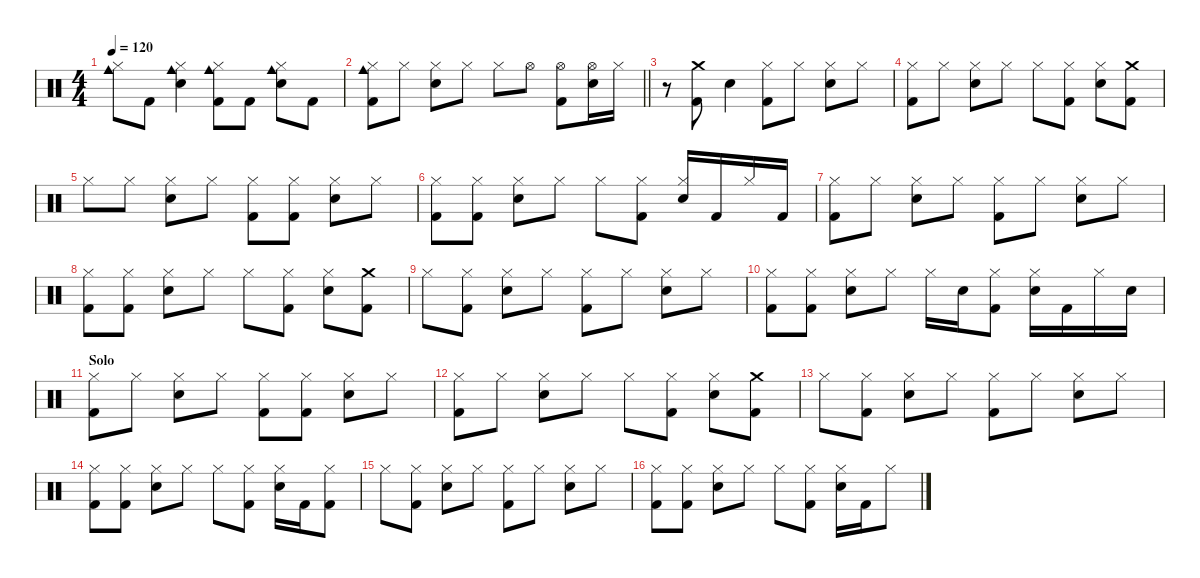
\defaultSystemsLayout 4
\hideDynamics
\bracketExtendMode nobrackets
\singleTrackTrackNamePolicy hidden
\multiTrackTrackNamePolicy hidden
\otherSystemsTrackNameOrientation horizontal
\track ("Percussions" "drm.") {instrument percussion}
\staff {score}
\articulation defaults
\ts (4 4)
\tempo 120
\clef neutral
\ks c
("Cowbell medium (hit)" "Hi-Hat (closed)").8{dy f beam Down} "Kick (hit) 2".8{beam Down} ("Cowbell medium (hit)" "Hi-Hat (closed)" "Snare (hit) 2").4{beam Down} ("Cowbell medium (hit)" "Hi-Hat (closed)" "Kick (hit) 2").8{beam Down} "Kick (hit) 2".8{beam Down} ("Cowbell medium (hit)" "Hi-Hat (closed)" "Snare (hit) 2").8{beam Down} "Kick (hit) 2".8{beam Down} |
\barLineRight lightlight
("Cowbell medium (hit)" "Hi-Hat (closed)" "Kick (hit) 2").8{beam Down} "Hi-Hat (closed)".8{beam Down} ("Hi-Hat (closed)" "Snare (hit) 2").8{beam Down} "Hi-Hat (closed)".8{beam Down} "Hi-Hat (closed)".8{beam Down} "Hi-Hat (open)".8{beam Down} ("Hi-Hat (open)" "Kick (hit) 2").8{beam Down} ("Hi-Hat (open)" "Snare (hit) 2").16{beam Down} "Hi-Hat (closed)".16{beam Down} |
r.8{beam Down} ("Crash medium (hit)" "Kick (hit) 2").8{beam Down} "Snare (hit) 2".4{beam Down} ("Hi-Hat (closed)" "Kick (hit) 2").8{beam Down} "Hi-Hat (closed)".8{beam Down} ("Hi-Hat (closed)" "Snare (hit) 2").8{beam Down} "Hi-Hat (closed)".8{beam Down} |
("Hi-Hat (closed)" "Kick (hit) 2").8{beam Down} "Hi-Hat (closed)".8{beam Down} ("Hi-Hat (closed)" "Snare (hit) 2").8{beam Down} "Hi-Hat (closed)".8{beam Down} "Hi-Hat (closed)".8{beam Down} ("Hi-Hat (closed)" "Kick (hit) 2").8{beam Down} ("Hi-Hat (closed)" "Snare (hit) 2").8{beam Down} ("Crash medium (hit)" "Kick (hit) 2").8{beam Down} |
"Hi-Hat (closed)".8{beam Down} "Hi-Hat (closed)".8{beam Down} ("Hi-Hat (closed)" "Snare (hit) 2").8{beam Down} "Hi-Hat (closed)".8{beam Down} ("Hi-Hat (closed)" "Kick (hit) 2").8{beam Down} ("Hi-Hat (closed)" "Kick (hit) 2").8{beam Down} ("Hi-Hat (closed)" "Snare (hit) 2").8{beam Down} "Hi-Hat (closed)".8{beam Down} |
("Hi-Hat (closed)" "Kick (hit) 2").8{beam Down} ("Hi-Hat (closed)" "Kick (hit) 2").8{beam Down} ("Hi-Hat (closed)" "Snare (hit) 2").8{beam Down} "Hi-Hat (closed)".8{beam Down} "Hi-Hat (closed)".8{beam Down} ("Hi-Hat (closed)" "Kick (hit) 2").8{beam Down} ("Hi-Hat (closed)" "Snare (hit) 2").16{beam Up} "Kick (hit) 2".16{beam Up} "Hi-Hat (closed)".16{beam Up} "Kick (hit) 2".16{beam Up} |
("Hi-Hat (closed)" "Kick (hit) 2").8{beam Down} "Hi-Hat (closed)".8{beam Down} ("Hi-Hat (closed)" "Snare (hit) 2").8{beam Down} "Hi-Hat (closed)".8{beam Down} ("Hi-Hat (closed)" "Kick (hit) 2").8{beam Down} "Hi-Hat (closed)".8{beam Down} ("Hi-Hat (closed)" "Snare (hit) 2").8{beam Down} "Hi-Hat (closed)".8{beam Down} |
("Hi-Hat (closed)" "Kick (hit) 2").8{beam Down} ("Hi-Hat (closed)" "Kick (hit) 2").8{beam Down} ("Hi-Hat (closed)" "Snare (hit) 2").8{beam Down} "Hi-Hat (closed)".8{beam Down} "Hi-Hat (closed)".8{beam Down} ("Hi-Hat (closed)" "Kick (hit) 2").8{beam Down} ("Hi-Hat (closed)" "Snare (hit) 2").8{beam Down} ("Crash medium (hit)" "Kick (hit) 2").8{beam Down} |
"Hi-Hat (closed)".8{beam Down} ("Hi-Hat (closed)" "Kick (hit) 2").8{beam Down} ("Hi-Hat (closed)" "Snare (hit) 2").8{beam Down} "Hi-Hat (closed)".8{beam Down} ("Hi-Hat (closed)" "Kick (hit) 2").8{beam Down} "Hi-Hat (closed)".8{beam Down} ("Hi-Hat (closed)" "Snare (hit) 2").8{beam Down} "Hi-Hat (closed)".8{beam Down} |
("Hi-Hat (closed)" "Kick (hit) 2").8{beam Down} ("Hi-Hat (closed)" "Kick (hit) 2").8{beam Down} ("Hi-Hat (closed)" "Snare (hit) 2").8{beam Down} "Hi-Hat (closed)".8{beam Down} "Hi-Hat (closed)".16{beam Down} "Snare (hit) 2".16{beam Down} ("Hi-Hat (closed)" "Kick (hit) 2").8{beam Down} ("Hi-Hat (closed)" "Snare (hit) 2").16{beam Down} "Kick (hit) 2".16{beam Down} "Hi-Hat (closed)".16{beam Down} "Snare (hit) 2".16{beam Down} |
\section ("" "Solo")
("Hi-Hat (closed)" "Kick (hit) 2").8{beam Down} "Hi-Hat (closed)".8{beam Down} ("Hi-Hat (closed)" "Snare (hit) 2").8{beam Down} "Hi-Hat (closed)".8{beam Down} ("Hi-Hat (closed)" "Kick (hit) 2").8{beam Down} ("Hi-Hat (closed)" "Kick (hit) 2").8{beam Down} ("Hi-Hat (closed)" "Snare (hit) 2").8{beam Down} "Hi-Hat (closed)".8{beam Down} |
("Hi-Hat (closed)" "Kick (hit) 2").8{beam Down} "Hi-Hat (closed)".8{beam Down} ("Hi-Hat (closed)" "Snare (hit) 2").8{beam Down} "Hi-Hat (closed)".8{beam Down} "Hi-Hat (closed)".8{beam Down} ("Hi-Hat (closed)" "Kick (hit) 2").8{beam Down} ("Hi-Hat (closed)" "Snare (hit) 2").8{beam Down} ("Crash medium (hit)" "Kick (hit) 2").8{beam Down} |
"Hi-Hat (closed)".8{beam Down} ("Hi-Hat (closed)" "Kick (hit) 2").8{beam Down} ("Hi-Hat (closed)" "Snare (hit) 2").8{beam Down} "Hi-Hat (closed)".8{beam Down} ("Hi-Hat (closed)" "Kick (hit) 2").8{beam Down} "Hi-Hat (closed)".8{beam Down} ("Hi-Hat (closed)" "Snare (hit) 2").8{beam Down} "Hi-Hat (closed)".8{beam Down} |
("Hi-Hat (closed)" "Kick (hit) 2").8{beam Down} ("Hi-Hat (closed)" "Kick (hit) 2").8{beam Down} ("Hi-Hat (closed)" "Snare (hit) 2").8{beam Down} "Hi-Hat (closed)".8{beam Down} "Hi-Hat (closed)".8{beam Down} ("Hi-Hat (closed)" "Kick (hit) 2").8{beam Down} ("Hi-Hat (closed)" "Snare (hit) 2").16{beam Down} "Kick (hit) 2".16{beam Down} ("Hi-Hat (closed)" "Kick (hit) 2").8{beam Down} |
"Hi-Hat (closed)".8{beam Down} ("Hi-Hat (closed)" "Kick (hit) 2").8{beam Down} ("Hi-Hat (closed)" "Snare (hit) 2").8{beam Down} "Hi-Hat (closed)".8{beam Down} ("Hi-Hat (closed)" "Kick (hit) 2").8{beam Down} "Hi-Hat (closed)".8{beam Down} ("Hi-Hat (closed)" "Snare (hit) 2").8{beam Down} "Hi-Hat (closed)".8{beam Down} |
("Hi-Hat (closed)" "Kick (hit) 2").8{beam Down} ("Hi-Hat (closed)" "Kick (hit) 2").8{beam Down} ("Hi-Hat (closed)" "Snare (hit) 2").8{beam Down} "Hi-Hat (closed)".8{beam Down} "Hi-Hat (closed)".8{beam Down} ("Hi-Hat (closed)" "Kick (hit) 2").8{beam Down} ("Hi-Hat (closed)" "Snare (hit) 2").16{beam Down} "Kick (hit) 2".16{beam Down} "Hi-Hat (closed)".8{beam Down}
